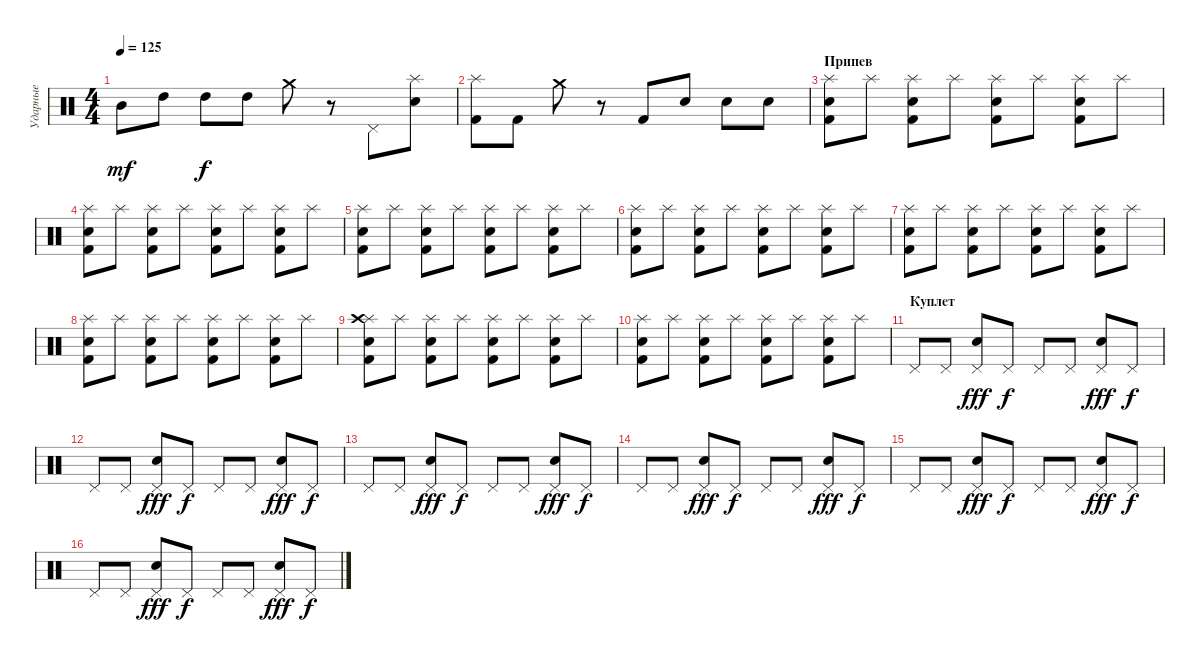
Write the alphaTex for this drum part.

\track ("Ударные" "Ударные") {instrument percussion}
\staff {score}
\articulation defaults
\ts (4 4)
\tempo 125
\clef neutral
\ks c "Mid Tom (hit)".8{dy mf} "High Tom (hit)".8 "High Tom (hit)".8{dy f} "High Tom (hit)".8 "Crash medium (hit)".8
r.8 "Pedal Hi-Hat (hit)".8 ("Electric Snare (hit)" "Splash (hit)").8 |
("Splash (hit)" "Kick (hit) 2").8 "Kick (hit) 2".8 "Crash medium (hit)".8 r.8 "Kick (hit) 2".8 "Electric Snare (hit)".8 "Electric Snare (hit)".8 "Electric Snare (hit)".8 |
\section ("" "Припев")
("Snare (hit) 2" "Splash (hit)" "Kick (hit) 2").8{volume 16} "Splash (hit)".8 ("Electric Snare (hit)" "Splash (hit)" "Kick (hit) 2").8 "Splash (hit)".8 ("Snare (hit) 2" "Splash (hit)" "Kick (hit) 2").8 "Splash (hit)".8 ("Electric Snare (hit)" "Splash (hit)" "Kick (hit) 2").8 "Splash (hit)".8 |
("Snare (hit) 2" "Splash (hit)" "Kick (hit) 2").8 "Splash (hit)".8 ("Electric Snare (hit)" "Splash (hit)" "Kick (hit) 2").8 "Splash (hit)".8 ("Snare (hit) 2" "Splash (hit)" "Kick (hit) 2").8 "Splash (hit)".8 ("Electric Snare (hit)" "Splash (hit)" "Kick (hit) 2").8 "Splash (hit)".8 |
("Snare (hit) 2" "Splash (hit)" "Kick (hit) 2").8 "Splash (hit)".8 ("Electric Snare (hit)" "Splash (hit)" "Kick (hit) 2").8 "Splash (hit)".8 ("Snare (hit) 2" "Splash (hit)" "Kick (hit) 2").8 "Splash (hit)".8 ("Electric Snare (hit)" "Splash (hit)" "Kick (hit) 2").8 "Splash (hit)".8 |
("Snare (hit) 2" "Splash (hit)" "Kick (hit) 2").8 "Splash (hit)".8 ("Electric Snare (hit)" "Splash (hit)" "Kick (hit) 2").8 "Splash (hit)".8 ("Snare (hit) 2" "Splash (hit)" "Kick (hit) 2").8 "Splash (hit)".8 ("Electric Snare (hit)" "Splash (hit)" "Kick (hit) 2").8 "Splash (hit)".8 |
("Snare (hit) 2" "Splash (hit)" "Kick (hit) 2").8 "Splash (hit)".8 ("Electric Snare (hit)" "Splash (hit)" "Kick (hit) 2").8 "Splash (hit)".8 ("Snare (hit) 2" "Splash (hit)" "Kick (hit) 2").8 "Splash (hit)".8 ("Electric Snare (hit)" "Splash (hit)" "Kick (hit) 2").8 "Splash (hit)".8 |
("Snare (hit) 2" "Splash (hit)" "Kick (hit) 2").8 "Splash (hit)".8 ("Electric Snare (hit)" "Splash (hit)" "Kick (hit) 2").8 "Splash (hit)".8 ("Snare (hit) 2" "Splash (hit)" "Kick (hit) 2").8 "Splash (hit)".8 ("Electric Snare (hit)" "Splash (hit)" "Kick (hit) 2").8 "Splash (hit)".8 |
("Snare (hit) 2" "Splash (hit)" "Crash high (hit)" "Kick (hit) 2").8 "Splash (hit)".8 ("Electric Snare (hit)" "Splash (hit)" "Kick (hit) 2").8 "Splash (hit)".8 ("Snare (hit) 2" "Splash (hit)" "Kick (hit) 2").8 "Splash (hit)".8 ("Electric Snare (hit)" "Splash (hit)" "Kick (hit) 2").8 "Splash (hit)".8 |
("Snare (hit) 2" "Splash (hit)" "Kick (hit) 2").8 "Splash (hit)".8 ("Electric Snare (hit)" "Splash (hit)" "Kick (hit) 2").8 "Splash (hit)".8 ("Snare (hit) 2" "Splash (hit)" "Kick (hit) 2").8 "Splash (hit)".8 ("Electric Snare (hit)" "Splash (hit)" "Kick (hit) 2").8 "Splash (hit)".8 |
\section ("" "Куплет")
"Pedal Hi-Hat (hit)".8{volume 13} "Pedal Hi-Hat (hit)".8 ("Electric Snare (hit)" "Pedal Hi-Hat (hit)").8{dy fff} "Pedal Hi-Hat (hit)".8{dy f} "Pedal Hi-Hat (hit)".8 "Pedal Hi-Hat (hit)".8 ("Electric Snare (hit)" "Pedal Hi-Hat (hit)").8{dy fff} "Pedal Hi-Hat (hit)".8{dy f} |
"Pedal Hi-Hat (hit)".8 "Pedal Hi-Hat (hit)".8 ("Electric Snare (hit)" "Pedal Hi-Hat (hit)").8{dy fff} "Pedal Hi-Hat (hit)".8{dy f} "Pedal Hi-Hat (hit)".8 "Pedal Hi-Hat (hit)".8 ("Electric Snare (hit)" "Pedal Hi-Hat (hit)").8{dy fff} "Pedal Hi-Hat (hit)".8{dy f} |
"Pedal Hi-Hat (hit)".8 "Pedal Hi-Hat (hit)".8 ("Electric Snare (hit)" "Pedal Hi-Hat (hit)").8{dy fff} "Pedal Hi-Hat (hit)".8{dy f} "Pedal Hi-Hat (hit)".8 "Pedal Hi-Hat (hit)".8 ("Electric Snare (hit)" "Pedal Hi-Hat (hit)").8{dy fff} "Pedal Hi-Hat (hit)".8{dy f} |
"Pedal Hi-Hat (hit)".8 "Pedal Hi-Hat (hit)".8 ("Electric Snare (hit)" "Pedal Hi-Hat (hit)").8{dy fff} "Pedal Hi-Hat (hit)".8{dy f} "Pedal Hi-Hat (hit)".8 "Pedal Hi-Hat (hit)".8 ("Electric Snare (hit)" "Pedal Hi-Hat (hit)").8{dy fff} "Pedal Hi-Hat (hit)".8{dy f} |
"Pedal Hi-Hat (hit)".8 "Pedal Hi-Hat (hit)".8 ("Electric Snare (hit)" "Pedal Hi-Hat (hit)").8{dy fff} "Pedal Hi-Hat (hit)".8{dy f} "Pedal Hi-Hat (hit)".8 "Pedal Hi-Hat (hit)".8 ("Electric Snare (hit)" "Pedal Hi-Hat (hit)").8{dy fff} "Pedal Hi-Hat (hit)".8{dy f} |
"Pedal Hi-Hat (hit)".8 "Pedal Hi-Hat (hit)".8 ("Electric Snare (hit)" "Pedal Hi-Hat (hit)").8{dy fff} "Pedal Hi-Hat (hit)".8{dy f} "Pedal Hi-Hat (hit)".8 "Pedal Hi-Hat (hit)".8 ("Electric Snare (hit)" "Pedal Hi-Hat (hit)").8{dy fff} "Pedal Hi-Hat (hit)".8{dy f}
